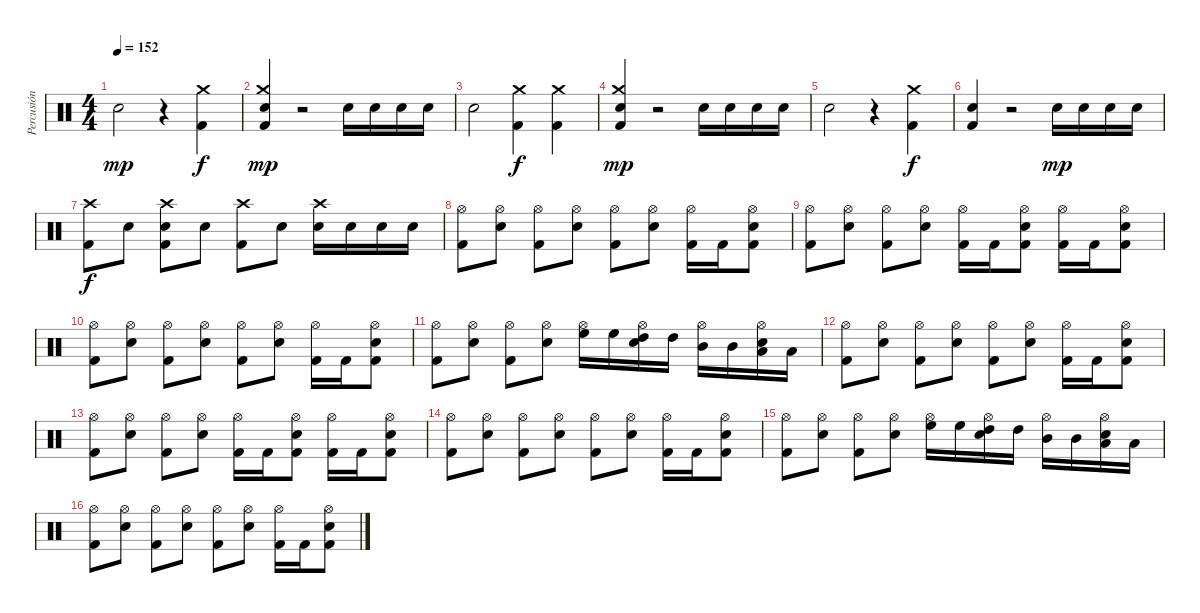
\track ("Percusión" "Percusión") {instrument percussion}
\staff {score}
\articulation defaults
\ts (4 4)
\tempo 152
\clef neutral
\ks c "Snare (hit) 2".2{dy mp}
r.4 ("Crash medium (hit)" "Kick (hit) 2").4{dy f} |
("Crash medium (hit)" "Snare (hit) 2" "Kick (hit) 2").4{dy mp} r.2 "Snare (hit) 2".16 "Snare (hit) 2".16 "Snare (hit) 2".16 "Snare (hit) 2".16 |
"Snare (hit) 2".2 ("Crash medium (hit)" "Kick (hit) 2").4{dy f} ("Crash medium (hit)" "Kick (hit) 2").4 |
("Crash medium (hit)" "Snare (hit) 2" "Kick (hit) 2").4{dy mp} r.2 "Snare (hit) 2".16 "Snare (hit) 2".16 "Snare (hit) 2".16 "Snare (hit) 2".16 |
"Snare (hit) 2".2 r.4 ("Crash medium (hit)" "Kick (hit) 2").4{dy f} |
("Snare (hit) 2" "Kick (hit) 2").4 r.2 "Snare (hit) 2".16{dy mp} "Snare (hit) 2".16 "Snare (hit) 2".16 "Snare (hit) 2".16 |
("Crash high (hit)" "Kick (hit) 2").8{dy f} "Snare (hit) 2".8 ("Crash high (hit)" "Snare (hit) 2" "Kick (hit) 2").8 "Snare (hit) 2".8 ("Crash high (hit)" "Kick (hit) 2").8 "Snare (hit) 2".8 ("Crash high (hit)" "Snare (hit) 2").16 "Snare (hit) 2".16 "Snare (hit) 2".16 "Snare (hit) 2".16 |
("Hi-Hat (open)" "Kick (hit) 2").8 ("Hi-Hat (open)" "Snare (hit) 2").8 ("Hi-Hat (open)" "Kick (hit) 2").8 ("Hi-Hat (open)" "Snare (hit) 2").8 ("Hi-Hat (open)" "Kick (hit) 2").8 ("Hi-Hat (open)" "Snare (hit) 2").8 ("Hi-Hat (open)" "Kick (hit) 2").16 "Kick (hit) 2".16 ("Hi-Hat (open)" "Snare (hit) 2" "Kick (hit) 2").8 |
("Hi-Hat (open)" "Kick (hit) 2").8 ("Hi-Hat (open)" "Snare (hit) 2").8 ("Hi-Hat (open)" "Kick (hit) 2").8 ("Hi-Hat (open)" "Snare (hit) 2").8 ("Hi-Hat (open)" "Kick (hit) 2").16 "Kick (hit) 2".16 ("Hi-Hat (open)" "Snare (hit) 2" "Kick (hit) 2").8 ("Hi-Hat (open)" "Kick (hit) 2").16 "Kick (hit) 2".16 ("Hi-Hat (open)" "Snare (hit) 2" "Kick (hit) 2").8 |
("Hi-Hat (open)" "Kick (hit) 2").8 ("Hi-Hat (open)" "Snare (hit) 2").8 ("Hi-Hat (open)" "Kick (hit) 2").8 ("Hi-Hat (open)" "Snare (hit) 2").8 ("Hi-Hat (open)" "Kick (hit) 2").8 ("Hi-Hat (open)" "Snare (hit) 2").8 ("Hi-Hat (open)" "Kick (hit) 2").16 "Kick (hit) 2".16 ("Hi-Hat (open)" "Snare (hit) 2" "Kick (hit) 2").8 |
("Hi-Hat (open)" "Kick (hit) 2").8 ("Hi-Hat (open)" "Snare (hit) 2").8 ("Hi-Hat (open)" "Kick (hit) 2").8 ("Hi-Hat (open)" "Snare (hit) 2").8 ("Hi-Hat (open)" "High Floor Tom (hit)").16 "High Floor Tom (hit)".16 ("Hi-Hat (open)" "Snare (hit) 2" "High Tom (hit)").16 "High Tom (hit)".16 ("Hi-Hat (open)" "Mid Tom (hit)").16 "Mid Tom (hit)".16 ("Hi-Hat (open)" "Snare (hit) 2" "Low Tom (hit)").16 "Low Tom (hit)".16 |
("Hi-Hat (open)" "Kick (hit) 2").8 ("Hi-Hat (open)" "Snare (hit) 2").8 ("Hi-Hat (open)" "Kick (hit) 2").8 ("Hi-Hat (open)" "Snare (hit) 2").8 ("Hi-Hat (open)" "Kick (hit) 2").8 ("Hi-Hat (open)" "Snare (hit) 2").8 ("Hi-Hat (open)" "Kick (hit) 2").16 "Kick (hit) 2".16 ("Hi-Hat (open)" "Snare (hit) 2" "Kick (hit) 2").8 |
("Hi-Hat (open)" "Kick (hit) 2").8 ("Hi-Hat (open)" "Snare (hit) 2").8 ("Hi-Hat (open)" "Kick (hit) 2").8 ("Hi-Hat (open)" "Snare (hit) 2").8 ("Hi-Hat (open)" "Kick (hit) 2").16 "Kick (hit) 2".16 ("Hi-Hat (open)" "Snare (hit) 2" "Kick (hit) 2").8 ("Hi-Hat (open)" "Kick (hit) 2").16 "Kick (hit) 2".16 ("Hi-Hat (open)" "Snare (hit) 2" "Kick (hit) 2").8 |
("Hi-Hat (open)" "Kick (hit) 2").8 ("Hi-Hat (open)" "Snare (hit) 2").8 ("Hi-Hat (open)" "Kick (hit) 2").8 ("Hi-Hat (open)" "Snare (hit) 2").8 ("Hi-Hat (open)" "Kick (hit) 2").8 ("Hi-Hat (open)" "Snare (hit) 2").8 ("Hi-Hat (open)" "Kick (hit) 2").16 "Kick (hit) 2".16 ("Hi-Hat (open)" "Snare (hit) 2" "Kick (hit) 2").8 |
("Hi-Hat (open)" "Kick (hit) 2").8 ("Hi-Hat (open)" "Snare (hit) 2").8 ("Hi-Hat (open)" "Kick (hit) 2").8 ("Hi-Hat (open)" "Snare (hit) 2").8 ("Hi-Hat (open)" "High Floor Tom (hit)").16 "High Floor Tom (hit)".16 ("Hi-Hat (open)" "Snare (hit) 2" "High Tom (hit)").16 "High Tom (hit)".16 ("Hi-Hat (open)" "Mid Tom (hit)").16 "Mid Tom (hit)".16 ("Hi-Hat (open)" "Snare (hit) 2" "Low Tom (hit)").16 "Low Tom (hit)".16 |
("Hi-Hat (open)" "Kick (hit) 2").8 ("Hi-Hat (open)" "Snare (hit) 2").8 ("Hi-Hat (open)" "Kick (hit) 2").8 ("Hi-Hat (open)" "Snare (hit) 2").8 ("Hi-Hat (open)" "Kick (hit) 2").8 ("Hi-Hat (open)" "Snare (hit) 2").8 ("Hi-Hat (open)" "Kick (hit) 2").16 "Kick (hit) 2".16 ("Hi-Hat (open)" "Snare (hit) 2" "Kick (hit) 2").8
